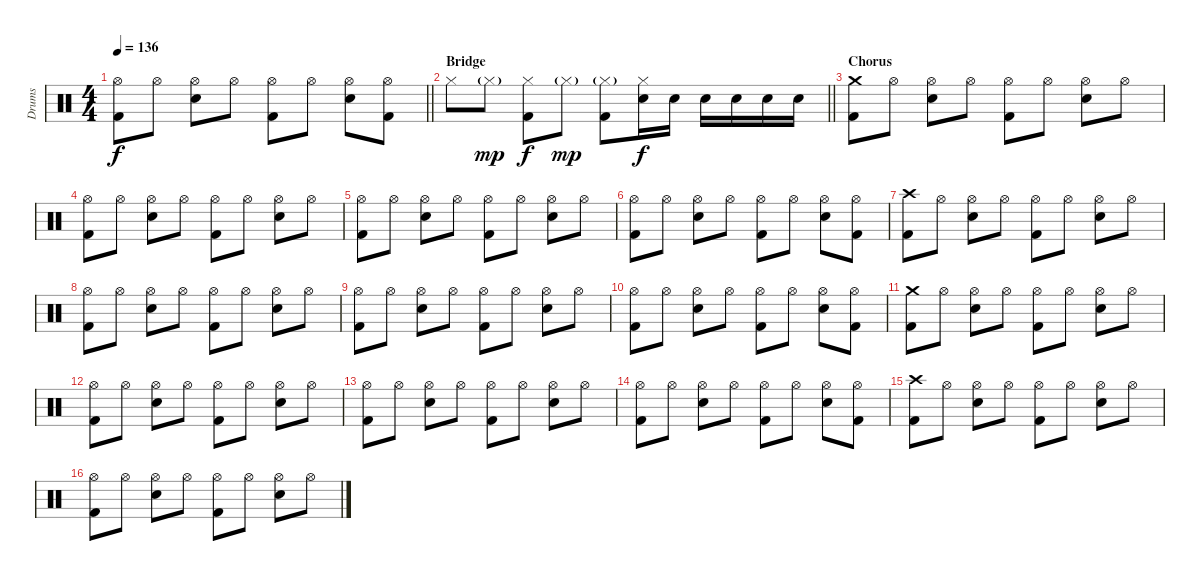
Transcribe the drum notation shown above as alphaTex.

\track ("Drums" "Drums") {instrument percussion}
\staff {score}
\articulation defaults
\ts (4 4)
\tempo 136
\clef neutral
\barLineRight lightlight
\ks c
("Hi-Hat (open)" "Kick (hit) 2").8{dy f} "Hi-Hat (open)".8 ("Hi-Hat (open)" "Electric Snare (hit)").8 "Hi-Hat (open)".8 ("Hi-Hat (open)" "Kick (hit) 2").8 "Hi-Hat (open)".8 ("Hi-Hat (open)" "Electric Snare (hit)").8 ("Hi-Hat (open)" "Kick (hit) 2").8 |
\section ("" "Bridge")
\barLineRight lightlight "Hi-Hat (closed)".8 "Hi-Hat (closed)"{g}.8{dy mp}
("Hi-Hat (closed)" "Kick (hit) 2").8{dy f} "Hi-Hat (closed)"{g}.8{dy mp} ("Hi-Hat (closed)"{g} "Kick (hit) 2").8 ("Hi-Hat (closed)" "Electric Snare (hit)").16{dy f} "Electric Snare (hit)".16 "Electric Snare (hit)".16 "Electric Snare (hit)".16 "Electric Snare (hit)".16 "Electric Snare (hit)".16 |
\section ("" "Chorus")
("Crash medium (hit)" "Kick (hit) 2").8 "Hi-Hat (open)".8 ("Hi-Hat (open)" "Electric Snare (hit)").8 "Hi-Hat (open)".8 ("Hi-Hat (open)" "Kick (hit) 2").8 "Hi-Hat (open)".8 ("Hi-Hat (open)" "Electric Snare (hit)").8 "Hi-Hat (open)".8 |
("Hi-Hat (open)" "Kick (hit) 2").8 "Hi-Hat (open)".8 ("Hi-Hat (open)" "Electric Snare (hit)").8 "Hi-Hat (open)".8 ("Hi-Hat (open)" "Kick (hit) 2").8 "Hi-Hat (open)".8 ("Hi-Hat (open)" "Electric Snare (hit)").8 "Hi-Hat (open)".8 |
("Hi-Hat (open)" "Kick (hit) 2").8 "Hi-Hat (open)".8 ("Hi-Hat (open)" "Electric Snare (hit)").8 "Hi-Hat (open)".8 ("Hi-Hat (open)" "Kick (hit) 2").8 "Hi-Hat (open)".8 ("Hi-Hat (open)" "Electric Snare (hit)").8 "Hi-Hat (open)".8 |
("Hi-Hat (open)" "Kick (hit) 2").8 "Hi-Hat (open)".8 ("Hi-Hat (open)" "Electric Snare (hit)").8 "Hi-Hat (open)".8 ("Hi-Hat (open)" "Kick (hit) 2").8 "Hi-Hat (open)".8 ("Hi-Hat (open)" "Electric Snare (hit)").8 ("Hi-Hat (open)" "Kick (hit) 2").8 |
("Crash high (hit)" "Kick (hit) 2").8 "Hi-Hat (open)".8 ("Hi-Hat (open)" "Electric Snare (hit)").8 "Hi-Hat (open)".8 ("Hi-Hat (open)" "Kick (hit) 2").8 "Hi-Hat (open)".8 ("Hi-Hat (open)" "Electric Snare (hit)").8 "Hi-Hat (open)".8 |
("Hi-Hat (open)" "Kick (hit) 2").8 "Hi-Hat (open)".8 ("Hi-Hat (open)" "Electric Snare (hit)").8 "Hi-Hat (open)".8 ("Hi-Hat (open)" "Kick (hit) 2").8 "Hi-Hat (open)".8 ("Hi-Hat (open)" "Electric Snare (hit)").8 "Hi-Hat (open)".8 |
("Hi-Hat (open)" "Kick (hit) 2").8 "Hi-Hat (open)".8 ("Hi-Hat (open)" "Electric Snare (hit)").8 "Hi-Hat (open)".8 ("Hi-Hat (open)" "Kick (hit) 2").8 "Hi-Hat (open)".8 ("Hi-Hat (open)" "Electric Snare (hit)").8 "Hi-Hat (open)".8 |
("Hi-Hat (open)" "Kick (hit) 2").8 "Hi-Hat (open)".8 ("Hi-Hat (open)" "Electric Snare (hit)").8 "Hi-Hat (open)".8 ("Hi-Hat (open)" "Kick (hit) 2").8 "Hi-Hat (open)".8 ("Hi-Hat (open)" "Electric Snare (hit)").8 ("Hi-Hat (open)" "Kick (hit) 2").8 |
("Crash medium (hit)" "Kick (hit) 2").8 "Hi-Hat (open)".8 ("Hi-Hat (open)" "Electric Snare (hit)").8 "Hi-Hat (open)".8 ("Hi-Hat (open)" "Kick (hit) 2").8 "Hi-Hat (open)".8 ("Hi-Hat (open)" "Electric Snare (hit)").8 "Hi-Hat (open)".8 |
("Hi-Hat (open)" "Kick (hit) 2").8 "Hi-Hat (open)".8 ("Hi-Hat (open)" "Electric Snare (hit)").8 "Hi-Hat (open)".8 ("Hi-Hat (open)" "Kick (hit) 2").8 "Hi-Hat (open)".8 ("Hi-Hat (open)" "Electric Snare (hit)").8 "Hi-Hat (open)".8 |
("Hi-Hat (open)" "Kick (hit) 2").8 "Hi-Hat (open)".8 ("Hi-Hat (open)" "Electric Snare (hit)").8 "Hi-Hat (open)".8 ("Hi-Hat (open)" "Kick (hit) 2").8 "Hi-Hat (open)".8 ("Hi-Hat (open)" "Electric Snare (hit)").8 "Hi-Hat (open)".8 |
("Hi-Hat (open)" "Kick (hit) 2").8 "Hi-Hat (open)".8 ("Hi-Hat (open)" "Electric Snare (hit)").8 "Hi-Hat (open)".8 ("Hi-Hat (open)" "Kick (hit) 2").8 "Hi-Hat (open)".8 ("Hi-Hat (open)" "Electric Snare (hit)").8 ("Hi-Hat (open)" "Kick (hit) 2").8 |
("Crash high (hit)" "Kick (hit) 2").8 "Hi-Hat (open)".8 ("Hi-Hat (open)" "Electric Snare (hit)").8 "Hi-Hat (open)".8 ("Hi-Hat (open)" "Kick (hit) 2").8 "Hi-Hat (open)".8 ("Hi-Hat (open)" "Electric Snare (hit)").8 "Hi-Hat (open)".8 |
("Hi-Hat (open)" "Kick (hit) 2").8 "Hi-Hat (open)".8 ("Hi-Hat (open)" "Electric Snare (hit)").8 "Hi-Hat (open)".8 ("Hi-Hat (open)" "Kick (hit) 2").8 "Hi-Hat (open)".8 ("Hi-Hat (open)" "Electric Snare (hit)").8 "Hi-Hat (open)".8
